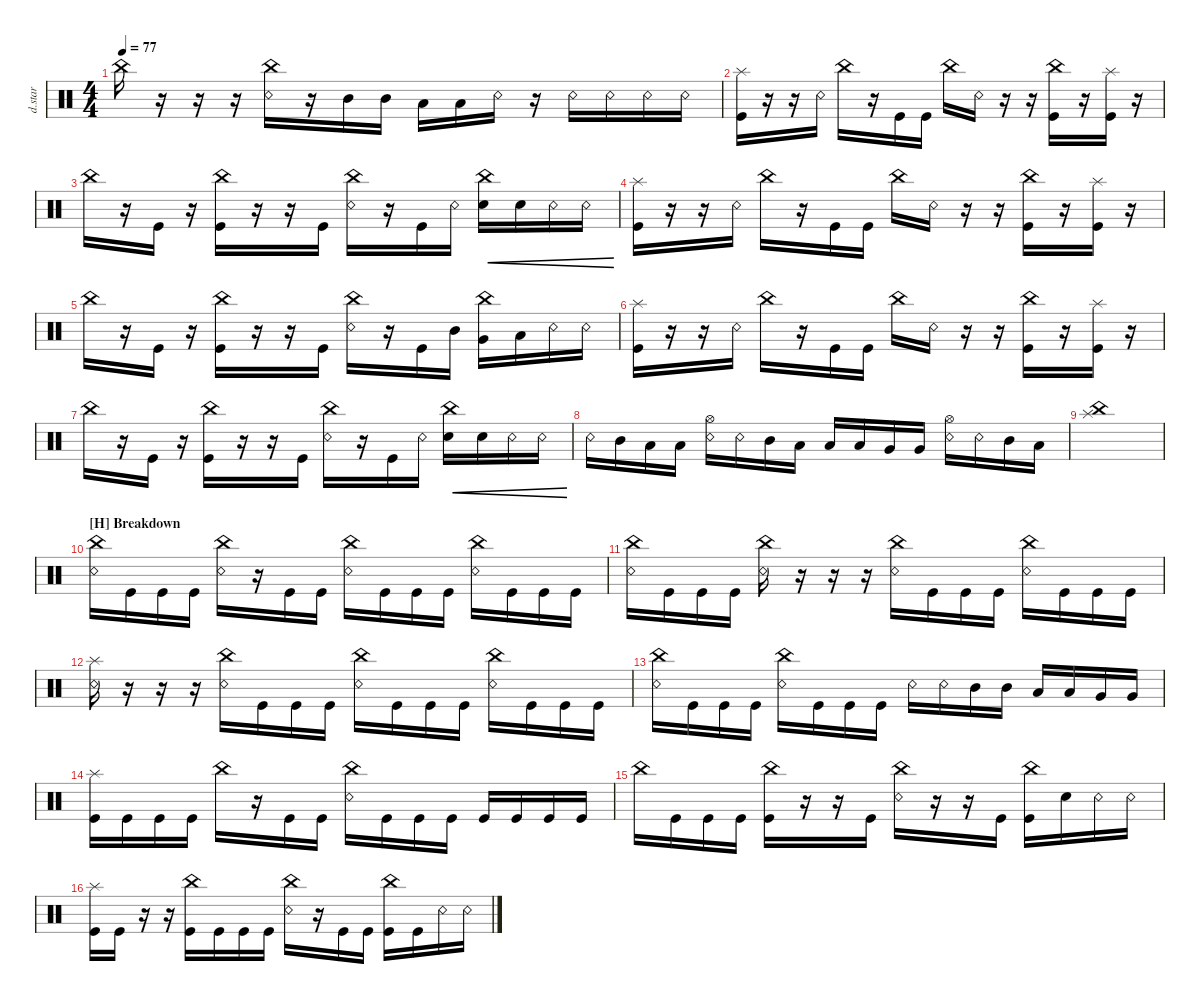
\defaultSystemsLayout 4
\hideDynamics
\bracketExtendMode nobrackets
\otherSystemsTrackNameOrientation horizontal
\track ("Drumkit Star" "d.star") {instrument percussion}
\staff {score}
\articulation defaults
\ts (4 4)
\tempo 77
\clef neutral
\ks c "China (hit)".16{dy ff}
r.16 r.16 r.16 ("Snare (rim shot)" "China (hit)").16 r.16 "Mid Tom (hit)".16 "Mid Tom (hit)".16 "Low Tom (hit)".16 "Low Tom (hit)".16 "Snare (rim shot)".16 r.16 "Snare (rim shot)".16 "Snare (rim shot)".16 "Snare (rim shot)".16 "Snare (rim shot)".16 |
("Kick (hit)" "Splash (hit)").16 r.16 r.16 "Snare (rim shot)".16 "China (hit)".16 r.16 "Kick (hit)".16 "Kick (hit)".16 "China (hit)".16 "Snare (rim shot)".16 r.16 r.16 ("Kick (hit)" "China (hit)").16 r.16 ("Kick (hit)" "Splash (hit)").16 r.16 |
"China (hit)".16 r.16 "Kick (hit)".16 r.16 ("Kick (hit)" "China (hit)").16 r.16 r.16 "Kick (hit)".16 ("Snare (rim shot)" "China (hit)").16 r.16 "Kick (hit)".16 "Snare (rim shot)".16 ("China (hit)" "Snare (hit) 2").16{cre} "Snare (hit) 2".16{cre} "Snare (rim shot)".16{cre} "Snare (rim shot)".16{cre} |
("Kick (hit)" "Splash (hit)").16 r.16 r.16 "Snare (rim shot)".16 "China (hit)".16 r.16 "Kick (hit)".16 "Kick (hit)".16 "China (hit)".16 "Snare (rim shot)".16 r.16 r.16 ("Kick (hit)" "China (hit)").16 r.16 ("Kick (hit)" "Splash (hit)").16 r.16 |
"China (hit)".16 r.16 "Kick (hit)".16 r.16 ("Kick (hit)" "China (hit)").16 r.16 r.16 "Kick (hit)".16 ("Snare (rim shot)" "China (hit)").16 r.16 "Kick (hit)".16 "Mid Tom (hit)".16 ("China (hit)" "Very Low Tom (hit)").16 "Low Tom (hit)".16 "Snare (rim shot)".16 "Snare (rim shot)".16 |
("Kick (hit)" "Splash (hit)").16 r.16 r.16 "Snare (rim shot)".16 "China (hit)".16 r.16 "Kick (hit)".16 "Kick (hit)".16 "China (hit)".16 "Snare (rim shot)".16 r.16 r.16 ("Kick (hit)" "China (hit)").16 r.16 ("Kick (hit)" "Splash (hit)").16 r.16 |
"China (hit)".16 r.16 "Kick (hit)".16 r.16 ("Kick (hit)" "China (hit)").16 r.16 r.16 "Kick (hit)".16 ("Snare (rim shot)" "China (hit)").16 r.16 "Kick (hit)".16 "Snare (rim shot)".16 ("China (hit)" "Snare (hit) 2").16{cre} "Snare (hit) 2".16{cre} "Snare (rim shot)".16{cre} "Snare (rim shot)".16{cre} |
"Snare (rim shot)".16 "Mid Tom (hit)".16 "Low Tom (hit)".16 "Low Tom (hit)".16 ("Snare (rim shot)" "Hi-Hat (open)").16 "Snare (rim shot)".16 "Mid Tom (hit)".16 "Low Tom (hit)".16 "Low Tom (hit)".16 "Low Tom (hit)".16 "Very Low Tom (hit)".16 "Very Low Tom (hit)".16 ("Snare (rim shot)" "Hi-Hat (open)").16 "Snare (rim shot)".16 "Mid Tom (hit)".16 "Low Tom (hit)".16 |
("Splash (hit)" "China (hit)").1 |
\section ("H" "Breakdown")
("Snare (rim shot)" "China (hit)").16 "Kick (hit)".16 "Kick (hit)".16 "Kick (hit)".16 ("Snare (rim shot)" "China (hit)").16 r.16 "Kick (hit)".16 "Kick (hit)".16 ("Snare (rim shot)" "China (hit)").16 "Kick (hit)".16 "Kick (hit)".16 "Kick (hit)".16 ("Snare (rim shot)" "China (hit)").16 "Kick (hit)".16 "Kick (hit)".16 "Kick (hit)".16 |
("Snare (rim shot)" "China (hit)").16 "Kick (hit)".16 "Kick (hit)".16 "Kick (hit)".16 ("Snare (rim shot)" "China (hit)").16 r.16 r.16 r.16 ("Snare (rim shot)" "China (hit)").16 "Kick (hit)".16 "Kick (hit)".16 "Kick (hit)".16 ("Snare (rim shot)" "China (hit)").16 "Kick (hit)".16 "Kick (hit)".16 "Kick (hit)".16 |
("Splash (hit)" "Snare (rim shot)").16 r.16 r.16 r.16 ("Snare (rim shot)" "China (hit)").16 "Kick (hit)".16 "Kick (hit)".16 "Kick (hit)".16 ("China (hit)" "Snare (rim shot)").16 "Kick (hit)".16 "Kick (hit)".16 "Kick (hit)".16 ("Snare (rim shot)" "China (hit)").16 "Kick (hit)".16 "Kick (hit)".16 "Kick (hit)".16 |
("China (hit)" "Snare (rim shot)").16 "Kick (hit)".16 "Kick (hit)".16 "Kick (hit)".16 ("Snare (rim shot)" "China (hit)").16 "Kick (hit)".16 "Kick (hit)".16 "Kick (hit)".16 "Snare (rim shot)".16 "Snare (rim shot)".16 "Mid Tom (hit)".16 "Mid Tom (hit)".16 "Low Tom (hit)".16 "Low Tom (hit)".16 "Very Low Tom (hit)".16 "Very Low Tom (hit)".16 |
("Splash (hit)" "Kick (hit)").16 "Kick (hit)".16 "Kick (hit)".16 "Kick (hit)".16 "China (hit)".16 r.16 "Kick (hit)".16 "Kick (hit)".16 ("Snare (rim shot)" "China (hit)").16 "Kick (hit)".16 "Kick (hit)".16 "Kick (hit)".16 "Kick (hit)".16 "Kick (hit)".16 "Kick (hit)".16 "Kick (hit)".16 |
"China (hit)".16 "Kick (hit)".16 "Kick (hit)".16 "Kick (hit)".16 ("Kick (hit)" "China (hit)").16 r.16 r.16 "Kick (hit)".16 ("Snare (rim shot)" "China (hit)").16 r.16 r.16 "Kick (hit)".16 ("China (hit)" "Kick (hit)").16 "Snare (hit) 2".16 "Snare (rim shot)".16 "Snare (rim shot)".16 |
("Kick (hit)" "Splash (hit)").16 "Kick (hit)".16 r.16 r.16 ("Kick (hit)" "China (hit)").16 "Kick (hit)".16 "Kick (hit)".16 "Kick (hit)".16 ("Snare (rim shot)" "China (hit)").16 r.16 "Kick (hit)".16 "Kick (hit)".16 ("Kick (hit)" "China (hit)").16 "Kick (hit)".16 "Snare (rim shot)".16 "Snare (rim shot)".16
